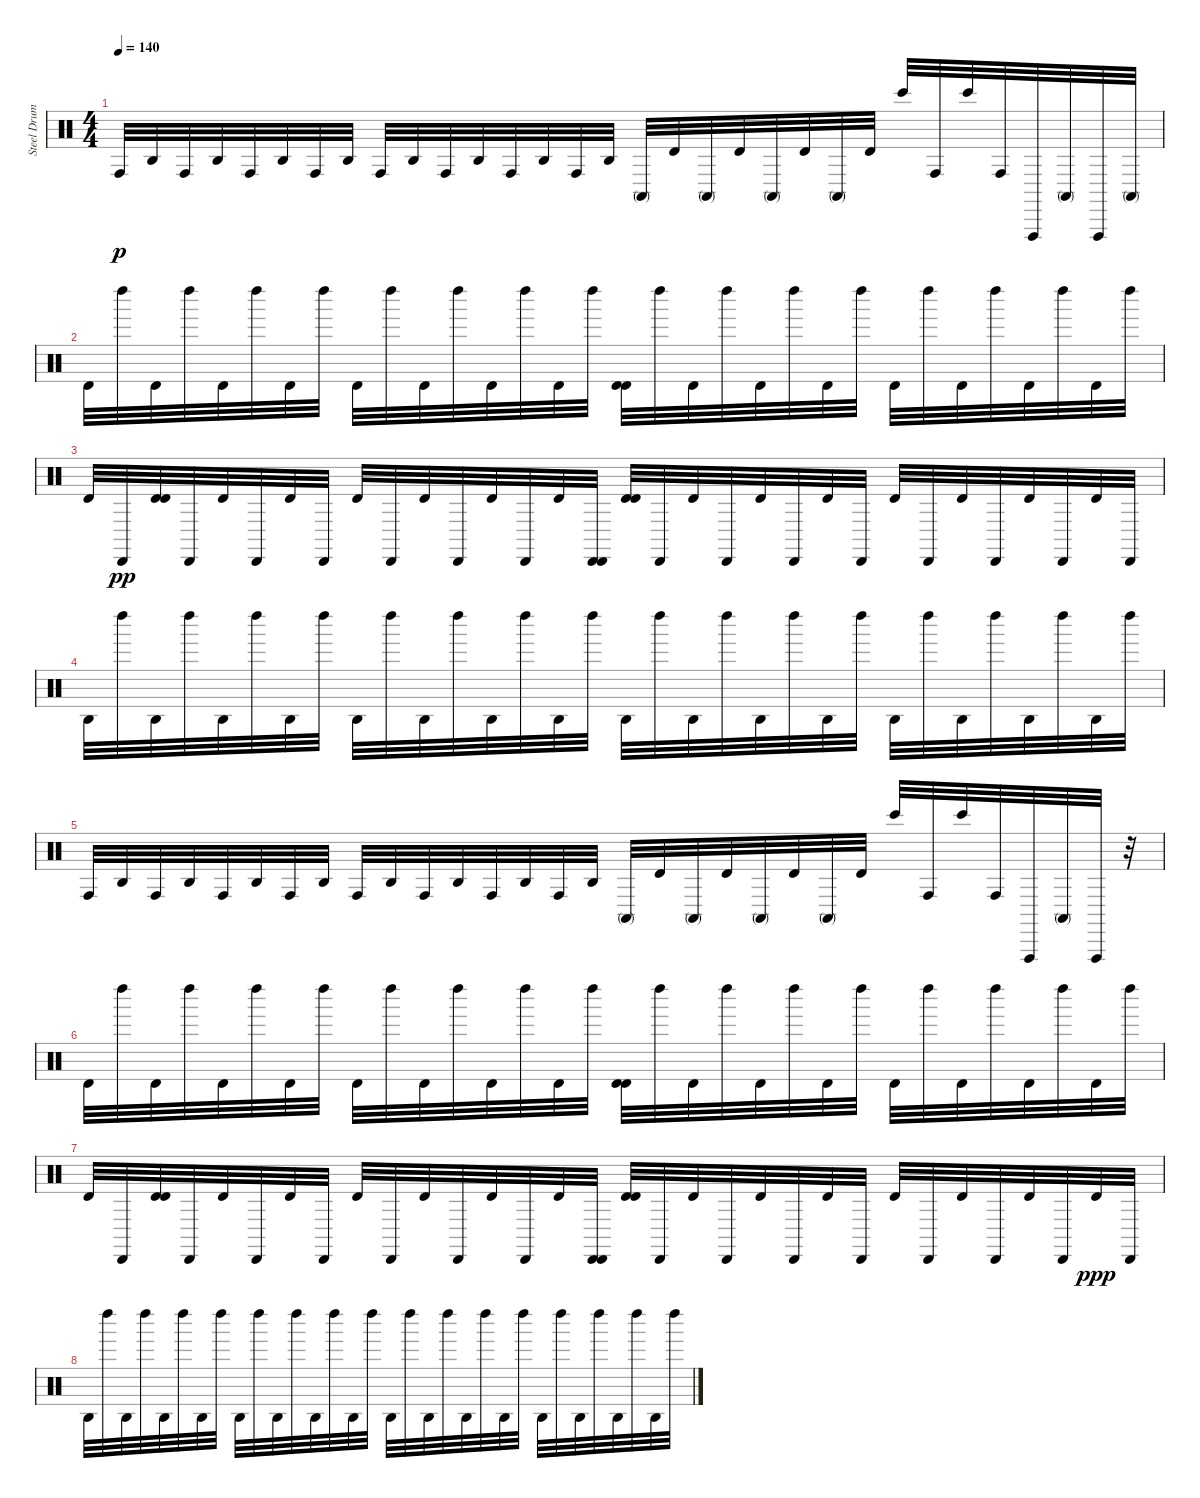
\track ("Steel Drums" "Steel Drum") {instrument percussion}
\staff {score}
\articulation defaults
\ts (4 4)
\tempo 140
\clef neutral
\ks c "Conga high (hit)".32{dy p} "Agogo high (hit)".32 "Conga high (hit)".32 "Agogo high (hit)".32 "Conga high (hit)".32 "Agogo high (hit)".32 "Conga high (hit)".32 "Agogo high (hit)".32 "Conga high (hit)".32 "Agogo high (hit)".32 "Conga high (hit)".32 "Agogo high (hit)".32 "Conga high (hit)".32 "Agogo high (hit)".32 "Conga high (hit)".32 "Agogo high (hit)".32 "Conga high (mute)".32 "Timbale high (hit)".32 "Conga high (mute)".32 "Timbale high (hit)".32 "Conga high (mute)".32 "Timbale high (hit)".32 "Conga high (mute)".32 "Timbale high (hit)".32 "Bongo High (hit)".32 "Conga high (hit)".32 "Bongo High (hit)".32 "Conga high (hit)".32 "Vibraslap (hit)".32 "Conga high (mute)".32 "Vibraslap (hit)".32 "Conga high (mute)".32
|
"Timbale high (hit)".32 "Left Maraca (hit)".32 "Timbale high (hit)".32 "Left Maraca (hit)".32 "Timbale high (hit)".32 "Left Maraca (hit)".32 "Timbale high (hit)".32 "Left Maraca (hit)".32 "Timbale high (hit)".32 "Left Maraca (hit)".32 "Timbale high (hit)".32 "Left Maraca (hit)".32 "Timbale high (hit)".32 "Left Maraca (hit)".32 "Timbale high (hit)".32 "Left Maraca (hit)".32 ("Timbale high (hit)" "Timbale high (hit)").32 "Left Maraca (hit)".32 "Timbale high (hit)".32 "Left Maraca (hit)".32 "Timbale high (hit)".32 "Left Maraca (hit)".32 "Timbale high (hit)".32 "Left Maraca (hit)".32 "Timbale high (hit)".32 "Left Maraca (hit)".32 "Timbale high (hit)".32 "Left Maraca (hit)".32 "Timbale high (hit)".32 "Left Maraca (hit)".32 "Timbale high (hit)".32 "Left Maraca (hit)".32 |
"Timbale high (hit)".32 "Cabasa (hit)".32{dy pp} ("Timbale high (hit)" "Timbale high (hit)").32 "Cabasa (hit)".32 "Timbale high (hit)".32 "Cabasa (hit)".32 "Timbale high (hit)".32 "Cabasa (hit)".32 "Timbale high (hit)".32 "Cabasa (hit)".32 "Timbale high (hit)".32 "Cabasa (hit)".32 "Timbale high (hit)".32 "Cabasa (hit)".32 "Timbale high (hit)".32 ("Cabasa (hit)" "Cabasa (hit)").32 ("Timbale high (hit)" "Timbale high (hit)").32 "Cabasa (hit)".32 "Timbale high (hit)".32 "Cabasa (hit)".32 "Timbale high (hit)".32 "Cabasa (hit)".32 "Timbale high (hit)".32 "Cabasa (hit)".32 "Timbale high (hit)".32 "Cabasa (hit)".32 "Timbale high (hit)".32 "Cabasa (hit)".32 "Timbale high (hit)".32 "Cabasa (hit)".32 "Timbale high (hit)".32 "Cabasa (hit)".32 |
"Agogo high (hit)".32 "Left Maraca (hit)".32 "Agogo high (hit)".32 "Left Maraca (hit)".32 "Agogo high (hit)".32 "Left Maraca (hit)".32 "Agogo high (hit)".32 "Left Maraca (hit)".32 "Agogo high (hit)".32 "Left Maraca (hit)".32 "Agogo high (hit)".32 "Left Maraca (hit)".32 "Agogo high (hit)".32 "Left Maraca (hit)".32 "Agogo high (hit)".32 "Left Maraca (hit)".32 "Agogo high (hit)".32 "Left Maraca (hit)".32 "Agogo high (hit)".32 "Left Maraca (hit)".32 "Agogo high (hit)".32 "Left Maraca (hit)".32 "Agogo high (hit)".32 "Left Maraca (hit)".32 "Agogo high (hit)".32 "Left Maraca (hit)".32 "Agogo high (hit)".32 "Left Maraca (hit)".32 "Agogo high (hit)".32 "Left Maraca (hit)".32 "Agogo high (hit)".32 "Left Maraca (hit)".32 |
"Conga high (hit)".32 "Agogo high (hit)".32 "Conga high (hit)".32 "Agogo high (hit)".32 "Conga high (hit)".32 "Agogo high (hit)".32 "Conga high (hit)".32 "Agogo high (hit)".32 "Conga high (hit)".32 "Agogo high (hit)".32 "Conga high (hit)".32 "Agogo high (hit)".32 "Conga high (hit)".32 "Agogo high (hit)".32 "Conga high (hit)".32 "Agogo high (hit)".32 "Conga high (mute)".32 "Timbale high (hit)".32 "Conga high (mute)".32 "Timbale high (hit)".32 "Conga high (mute)".32 "Timbale high (hit)".32 "Conga high (mute)".32 "Timbale high (hit)".32 "Bongo High (hit)".32 "Conga high (hit)".32 "Bongo High (hit)".32 "Conga high (hit)".32 "Vibraslap (hit)".32 "Conga high (mute)".32 "Vibraslap (hit)".32 r.32 |
"Timbale high (hit)".32 "Left Maraca (hit)".32 "Timbale high (hit)".32 "Left Maraca (hit)".32 "Timbale high (hit)".32 "Left Maraca (hit)".32 "Timbale high (hit)".32 "Left Maraca (hit)".32 "Timbale high (hit)".32 "Left Maraca (hit)".32 "Timbale high (hit)".32 "Left Maraca (hit)".32 "Timbale high (hit)".32 "Left Maraca (hit)".32 "Timbale high (hit)".32 "Left Maraca (hit)".32 ("Timbale high (hit)" "Timbale high (hit)").32 "Left Maraca (hit)".32 "Timbale high (hit)".32 "Left Maraca (hit)".32 "Timbale high (hit)".32 "Left Maraca (hit)".32 "Timbale high (hit)".32 "Left Maraca (hit)".32 "Timbale high (hit)".32 "Left Maraca (hit)".32 "Timbale high (hit)".32 "Left Maraca (hit)".32 "Timbale high (hit)".32 "Left Maraca (hit)".32 "Timbale high (hit)".32 "Left Maraca (hit)".32 |
"Timbale high (hit)".32 "Cabasa (hit)".32 ("Timbale high (hit)" "Timbale high (hit)").32 "Cabasa (hit)".32 "Timbale high (hit)".32 "Cabasa (hit)".32 "Timbale high (hit)".32 "Cabasa (hit)".32 "Timbale high (hit)".32 "Cabasa (hit)".32 "Timbale high (hit)".32 "Cabasa (hit)".32 "Timbale high (hit)".32 "Cabasa (hit)".32 "Timbale high (hit)".32 ("Cabasa (hit)" "Cabasa (hit)").32 ("Timbale high (hit)" "Timbale high (hit)").32 "Cabasa (hit)".32 "Timbale high (hit)".32 "Cabasa (hit)".32 "Timbale high (hit)".32 "Cabasa (hit)".32 "Timbale high (hit)".32 "Cabasa (hit)".32 "Timbale high (hit)".32 "Cabasa (hit)".32 "Timbale high (hit)".32 "Cabasa (hit)".32 "Timbale high (hit)".32 "Cabasa (hit)".32 "Timbale high (hit)".32{dy ppp} "Cabasa (hit)".32 |
"Agogo high (hit)".32 "Left Maraca (hit)".32 "Agogo high (hit)".32 "Left Maraca (hit)".32 "Agogo high (hit)".32 "Left Maraca (hit)".32 "Agogo high (hit)".32 "Left Maraca (hit)".32 "Agogo high (hit)".32 "Left Maraca (hit)".32 "Agogo high (hit)".32 "Left Maraca (hit)".32 "Agogo high (hit)".32 "Left Maraca (hit)".32 "Agogo high (hit)".32 "Left Maraca (hit)".32 "Agogo high (hit)".32 "Left Maraca (hit)".32 "Agogo high (hit)".32 "Left Maraca (hit)".32 "Agogo high (hit)".32 "Left Maraca (hit)".32 "Agogo high (hit)".32 "Left Maraca (hit)".32 "Agogo high (hit)".32 "Left Maraca (hit)".32 "Agogo high (hit)".32 "Left Maraca (hit)".32 "Agogo high (hit)".32 "Left Maraca (hit)".32 "Agogo high (hit)".32 "Left Maraca (hit)".32
